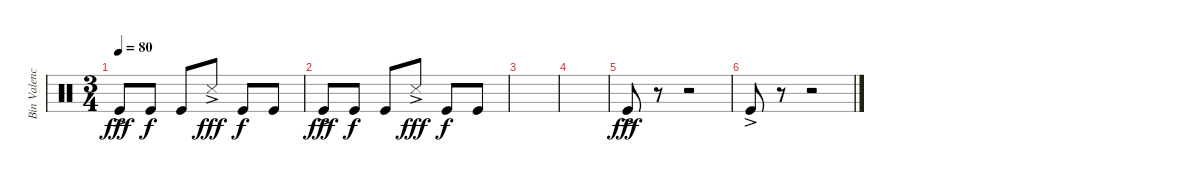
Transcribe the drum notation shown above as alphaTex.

\track ("Bin Valencia- Bombo de Cuero" "Bin Valenc") {instrument percussion}
\staff {score}
\articulation defaults
\ts (3 4)
\tempo 80
\clef neutral
\ks c "Kick (hit)"{ac}.8{dy fff} "Kick (hit)".8{dy f} "Kick (hit)".8 "Snare (side stick) 3"{ac}.8{dy fff} "Kick (hit)".8{dy f} "Kick (hit)".8
|
"Kick (hit)"{ac}.8{dy fff} "Kick (hit)".8{dy f} "Kick (hit)".8 "Snare (side stick) 3"{ac}.8{dy fff} "Kick (hit)".8{dy f} "Kick (hit)".8 |
|
|
"Kick (hit)"{ac}.8{dy fff} r.8 r.2 |
"Kick (hit)"{ac}.8 r.8 r.2
